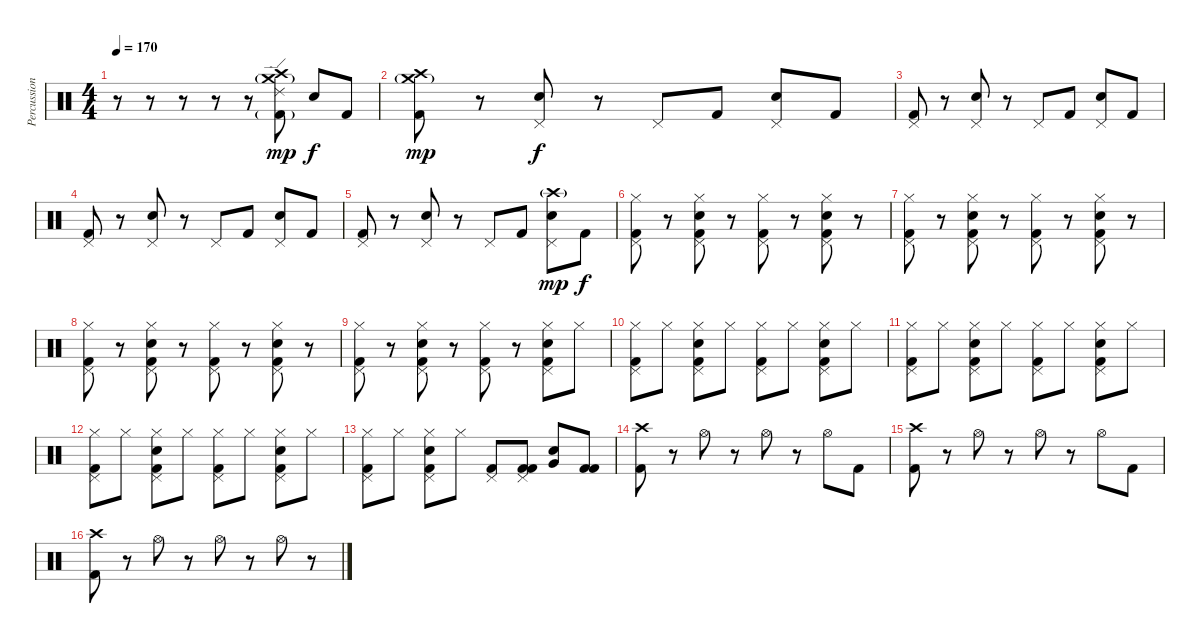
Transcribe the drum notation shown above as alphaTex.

\track ("Percussion" "Percussion") {instrument percussion}
\staff {score}
\articulation defaults
\ts (4 4)
\tempo 170
\clef neutral
\ks c
r.8{dy mp} r.8 r.8 r.8 r.8 ("Crash medium (hit)"{g} "Crash high (hit)" "Ride (edge) 2" "Kick (hit) 2"{g}).8 "Electric Snare (hit)".8{dy f} "Kick (hit) 2".8 |
("Crash medium (hit)"{g} "Crash high (hit)" "Kick (hit) 2").8{dy mp} r.8 ("Pedal Hi-Hat (hit)" "Electric Snare (hit)").8{dy f} r.8 "Pedal Hi-Hat (hit)".8 "Kick (hit) 2".8 ("Pedal Hi-Hat (hit)" "Electric Snare (hit)").8 "Kick (hit) 2".8 |
("Pedal Hi-Hat (hit)" "Kick (hit) 2").8 r.8 ("Pedal Hi-Hat (hit)" "Electric Snare (hit)").8 r.8 "Pedal Hi-Hat (hit)".8 "Kick (hit) 2".8 ("Pedal Hi-Hat (hit)" "Electric Snare (hit)").8 "Kick (hit) 2".8 |
("Pedal Hi-Hat (hit)" "Kick (hit) 2").8 r.8 ("Pedal Hi-Hat (hit)" "Electric Snare (hit)").8 r.8 "Pedal Hi-Hat (hit)".8 "Kick (hit) 2".8 ("Pedal Hi-Hat (hit)" "Electric Snare (hit)").8 "Kick (hit) 2".8 |
("Pedal Hi-Hat (hit)" "Kick (hit) 2").8 r.8 ("Pedal Hi-Hat (hit)" "Electric Snare (hit)").8 r.8 "Pedal Hi-Hat (hit)".8 "Kick (hit) 2".8 ("Crash high (hit)"{g} "Pedal Hi-Hat (hit)" "Electric Snare (hit)").8{dy mp} "Kick (hit) 2".8{dy f} |
("Pedal Hi-Hat (hit)" "Kick (hit) 2" "Hi-Hat (closed)").8 r.8 ("Electric Snare (hit)" "Pedal Hi-Hat (hit)" "Kick (hit) 2" "Hi-Hat (closed)").8 r.8 ("Pedal Hi-Hat (hit)" "Kick (hit) 2" "Hi-Hat (closed)").8 r.8 ("Electric Snare (hit)" "Pedal Hi-Hat (hit)" "Kick (hit) 2" "Hi-Hat (closed)").8 r.8 |
("Pedal Hi-Hat (hit)" "Kick (hit) 2" "Hi-Hat (closed)").8 r.8 ("Electric Snare (hit)" "Pedal Hi-Hat (hit)" "Kick (hit) 2" "Hi-Hat (closed)").8 r.8 ("Pedal Hi-Hat (hit)" "Kick (hit) 2" "Hi-Hat (closed)").8 r.8 ("Electric Snare (hit)" "Pedal Hi-Hat (hit)" "Kick (hit) 2" "Hi-Hat (closed)").8 r.8 |
("Pedal Hi-Hat (hit)" "Kick (hit) 2" "Hi-Hat (closed)").8 r.8 ("Electric Snare (hit)" "Pedal Hi-Hat (hit)" "Kick (hit) 2" "Hi-Hat (closed)").8 r.8 ("Pedal Hi-Hat (hit)" "Kick (hit) 2" "Hi-Hat (closed)").8 r.8 ("Electric Snare (hit)" "Pedal Hi-Hat (hit)" "Kick (hit) 2" "Hi-Hat (closed)").8 r.8 |
("Pedal Hi-Hat (hit)" "Kick (hit) 2" "Hi-Hat (closed)").8 r.8 ("Electric Snare (hit)" "Pedal Hi-Hat (hit)" "Kick (hit) 2" "Hi-Hat (closed)").8 r.8 ("Pedal Hi-Hat (hit)" "Kick (hit) 2" "Hi-Hat (closed)").8 r.8 ("Electric Snare (hit)" "Pedal Hi-Hat (hit)" "Kick (hit) 2" "Hi-Hat (closed)").8 "Hi-Hat (closed)".8 |
("Pedal Hi-Hat (hit)" "Kick (hit) 2" "Hi-Hat (closed)").8 "Hi-Hat (closed)".8 ("Electric Snare (hit)" "Pedal Hi-Hat (hit)" "Kick (hit) 2" "Hi-Hat (closed)").8 "Hi-Hat (closed)".8 ("Pedal Hi-Hat (hit)" "Kick (hit) 2" "Hi-Hat (closed)").8 "Hi-Hat (closed)".8 ("Electric Snare (hit)" "Pedal Hi-Hat (hit)" "Kick (hit) 2" "Hi-Hat (closed)").8 "Hi-Hat (closed)".8 |
("Pedal Hi-Hat (hit)" "Kick (hit) 2" "Hi-Hat (closed)").8 "Hi-Hat (closed)".8 ("Electric Snare (hit)" "Pedal Hi-Hat (hit)" "Kick (hit) 2" "Hi-Hat (closed)").8 "Hi-Hat (closed)".8 ("Pedal Hi-Hat (hit)" "Kick (hit) 2" "Hi-Hat (closed)").8 "Hi-Hat (closed)".8 ("Electric Snare (hit)" "Pedal Hi-Hat (hit)" "Kick (hit) 2" "Hi-Hat (closed)").8 "Hi-Hat (closed)".8 |
("Pedal Hi-Hat (hit)" "Kick (hit) 2" "Hi-Hat (closed)").8 "Hi-Hat (closed)".8 ("Electric Snare (hit)" "Pedal Hi-Hat (hit)" "Kick (hit) 2" "Hi-Hat (closed)").8 "Hi-Hat (closed)".8 ("Pedal Hi-Hat (hit)" "Kick (hit) 2" "Hi-Hat (closed)").8 "Hi-Hat (closed)".8 ("Electric Snare (hit)" "Pedal Hi-Hat (hit)" "Kick (hit) 2" "Hi-Hat (closed)").8 "Hi-Hat (closed)".8 |
("Pedal Hi-Hat (hit)" "Kick (hit) 2" "Hi-Hat (closed)").8 "Hi-Hat (closed)".8 ("Electric Snare (hit)" "Pedal Hi-Hat (hit)" "Kick (hit) 2" "Hi-Hat (closed)").8 "Hi-Hat (closed)".8 ("Pedal Hi-Hat (hit)" "Kick (hit) 2").8 ("Pedal Hi-Hat (hit)" "Kick (hit) 2" "Kick (hit) 2").8 ("Very Low Tom (hit)" "Electric Snare (hit)").8 ("Kick (hit) 2" "Kick (hit) 2").8 |
("Crash high (hit)" "Kick (hit) 2").8 r.8 "Hi-Hat (open)".8 r.8 "Hi-Hat (open)".8 r.8 "Hi-Hat (open)".8 "Kick (hit) 2".8 |
("Crash high (hit)" "Kick (hit) 2").8 r.8 "Hi-Hat (open)".8 r.8 "Hi-Hat (open)".8 r.8 "Hi-Hat (open)".8 "Kick (hit) 2".8 |
("Crash high (hit)" "Kick (hit) 2").8 r.8 "Hi-Hat (open)".8 r.8 "Hi-Hat (open)".8 r.8 "Hi-Hat (open)".8 r.8
